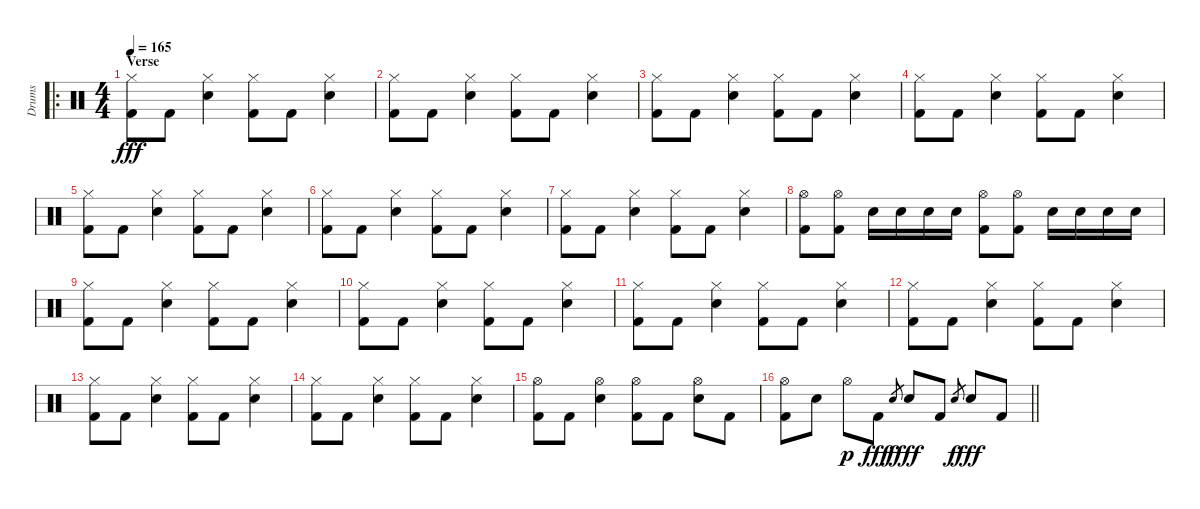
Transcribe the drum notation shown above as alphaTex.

\track ("Drums" "Drums") {instrument percussion}
\staff {score}
\articulation defaults
\ro
\ts (4 4)
\section ("" "Verse")
\tempo 165
\clef neutral
\ks c
("Hi-Hat (closed)" "Kick (hit) 2").8{dy fff} "Kick (hit) 2".8 ("Hi-Hat (closed)" "Snare (hit) 2").4 ("Hi-Hat (closed)" "Kick (hit) 2").8 "Kick (hit) 2".8 ("Hi-Hat (closed)" "Snare (hit) 2").4 |
("Hi-Hat (closed)" "Kick (hit) 2").8 "Kick (hit) 2".8 ("Hi-Hat (closed)" "Snare (hit) 2").4 ("Hi-Hat (closed)" "Kick (hit) 2").8 "Kick (hit) 2".8 ("Hi-Hat (closed)" "Snare (hit) 2").4 |
("Hi-Hat (closed)" "Kick (hit) 2").8 "Kick (hit) 2".8 ("Hi-Hat (closed)" "Snare (hit) 2").4 ("Hi-Hat (closed)" "Kick (hit) 2").8 "Kick (hit) 2".8 ("Hi-Hat (closed)" "Snare (hit) 2").4 |
("Hi-Hat (closed)" "Kick (hit) 2").8 "Kick (hit) 2".8 ("Hi-Hat (closed)" "Snare (hit) 2").4 ("Hi-Hat (closed)" "Kick (hit) 2").8 "Kick (hit) 2".8 ("Hi-Hat (closed)" "Snare (hit) 2").4 |
("Hi-Hat (closed)" "Kick (hit) 2").8 "Kick (hit) 2".8 ("Hi-Hat (closed)" "Snare (hit) 2").4 ("Hi-Hat (closed)" "Kick (hit) 2").8 "Kick (hit) 2".8 ("Hi-Hat (closed)" "Snare (hit) 2").4 |
("Hi-Hat (closed)" "Kick (hit) 2").8 "Kick (hit) 2".8 ("Hi-Hat (closed)" "Snare (hit) 2").4 ("Hi-Hat (closed)" "Kick (hit) 2").8 "Kick (hit) 2".8 ("Hi-Hat (closed)" "Snare (hit) 2").4 |
("Hi-Hat (closed)" "Kick (hit) 2").8 "Kick (hit) 2".8 ("Hi-Hat (closed)" "Snare (hit) 2").4 ("Hi-Hat (closed)" "Kick (hit) 2").8 "Kick (hit) 2".8 ("Hi-Hat (closed)" "Snare (hit) 2").4 |
("Hi-Hat (open)" "Kick (hit) 2").8 ("Hi-Hat (open)" "Kick (hit) 2").8 "Snare (hit) 2".16 "Snare (hit) 2".16 "Snare (hit) 2".16 "Snare (hit) 2".16 ("Hi-Hat (open)" "Kick (hit) 2").8 ("Hi-Hat (open)" "Kick (hit) 2").8 "Snare (hit) 2".16 "Snare (hit) 2".16 "Snare (hit) 2".16 "Snare (hit) 2".16 |
("Hi-Hat (closed)" "Kick (hit) 2").8 "Kick (hit) 2".8 ("Hi-Hat (closed)" "Snare (hit) 2").4 ("Hi-Hat (closed)" "Kick (hit) 2").8 "Kick (hit) 2".8 ("Hi-Hat (closed)" "Snare (hit) 2").4 |
("Hi-Hat (closed)" "Kick (hit) 2").8 "Kick (hit) 2".8 ("Hi-Hat (closed)" "Snare (hit) 2").4 ("Hi-Hat (closed)" "Kick (hit) 2").8 "Kick (hit) 2".8 ("Hi-Hat (closed)" "Snare (hit) 2").4 |
("Hi-Hat (closed)" "Kick (hit) 2").8 "Kick (hit) 2".8 ("Hi-Hat (closed)" "Snare (hit) 2").4 ("Hi-Hat (closed)" "Kick (hit) 2").8 "Kick (hit) 2".8 ("Hi-Hat (closed)" "Snare (hit) 2").4 |
("Hi-Hat (closed)" "Kick (hit) 2").8 "Kick (hit) 2".8 ("Hi-Hat (closed)" "Snare (hit) 2").4 ("Hi-Hat (closed)" "Kick (hit) 2").8 "Kick (hit) 2".8 ("Hi-Hat (closed)" "Snare (hit) 2").4 |
("Hi-Hat (closed)" "Kick (hit) 2").8 "Kick (hit) 2".8 ("Hi-Hat (closed)" "Snare (hit) 2").4 ("Hi-Hat (closed)" "Kick (hit) 2").8 "Kick (hit) 2".8 ("Hi-Hat (closed)" "Snare (hit) 2").4 |
("Hi-Hat (closed)" "Kick (hit) 2").8 "Kick (hit) 2".8 ("Hi-Hat (closed)" "Snare (hit) 2").4 ("Hi-Hat (closed)" "Kick (hit) 2").8 "Kick (hit) 2".8 ("Hi-Hat (closed)" "Snare (hit) 2").4 |
("Hi-Hat (open)" "Kick (hit) 2").8 "Kick (hit) 2".8 ("Hi-Hat (open)" "Snare (hit) 2").4 ("Hi-Hat (open)" "Kick (hit) 2").8 "Kick (hit) 2".8 ("Hi-Hat (open)" "Snare (hit) 2").8 "Kick (hit) 2".8 |
\barLineRight lightlight
("Hi-Hat (open)" "Kick (hit) 2").8 "Snare (hit) 2".8 "Hi-Hat (open)".8{dy p} "Kick (hit) 2".8{dy fff} "Snare (hit) 2".8{gr dy f} "Snare (hit) 2".8{dy fff} "Kick (hit) 2".8 "Snare (hit) 2".8{gr dy f} "Snare (hit) 2".8{dy fff} "Kick (hit) 2".8
